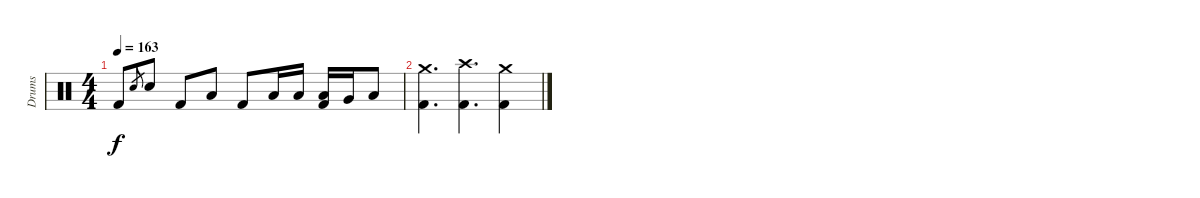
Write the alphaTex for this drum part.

\track ("Drums" "Drums") {instrument percussion}
\staff {score}
\articulation defaults
\ts (4 4)
\tempo 163
\clef neutral
\ks c "Kick (hit) 2".8{dy f} "Electric Snare (hit)".8{gr} "Electric Snare (hit)".8 "Kick (hit) 2".8 "Low Tom (hit)".8 "Kick (hit) 2".8 "Low Tom (hit)".16 "Low Tom (hit)".16
("Low Tom (hit)" "Kick (hit) 2").16 "Very Low Tom (hit)".16 "Low Floor Tom (hit)".8 |
("Crash medium (hit)" "Kick (hit) 2").4{d} ("Crash high (hit)" "Kick (hit) 2").4{d} ("Crash medium (hit)" "Kick (hit) 2").4
